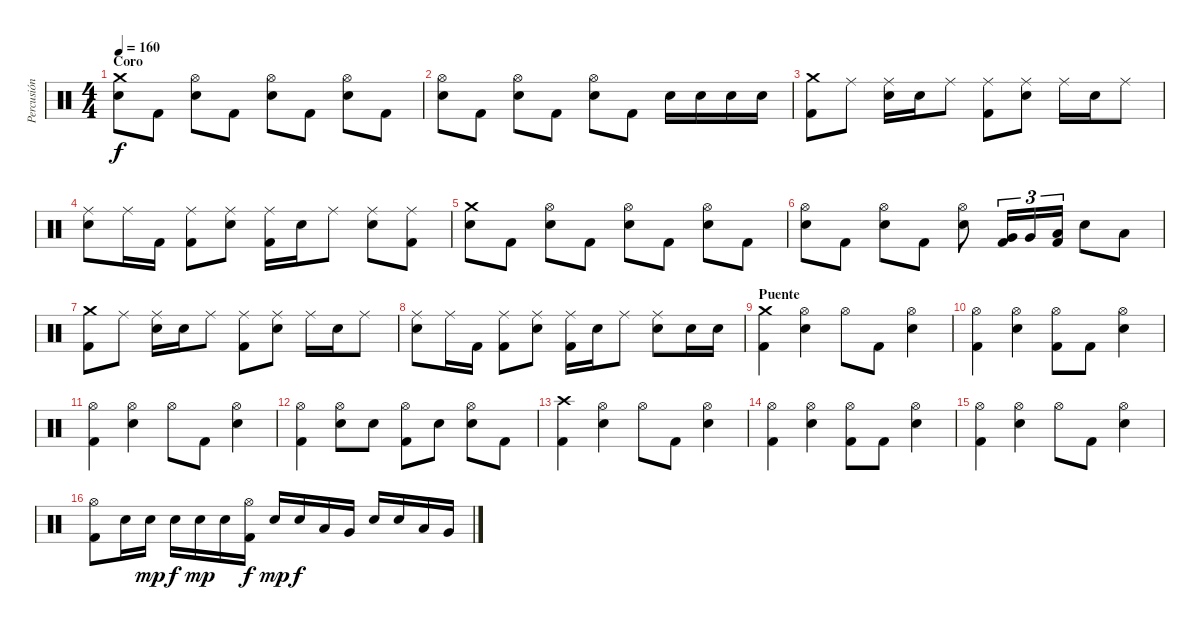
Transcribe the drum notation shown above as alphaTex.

\track ("Percusión" "Percusión") {instrument percussion}
\staff {score}
\articulation defaults
\ts (4 4)
\section ("" "Coro")
\tempo 160
\clef neutral
\ks c
("Crash medium (hit)" "Electric Snare (hit)").8{dy f} "Kick (hit) 2".8 ("Hi-Hat (open)" "Electric Snare (hit)").8 "Kick (hit) 2".8 ("Hi-Hat (open)" "Electric Snare (hit)").8 "Kick (hit) 2".8 ("Hi-Hat (open)" "Electric Snare (hit)").8 "Kick (hit) 2".8 |
("Hi-Hat (open)" "Electric Snare (hit)").8 "Kick (hit) 2".8 ("Hi-Hat (open)" "Electric Snare (hit)").8 "Kick (hit) 2".8 ("Hi-Hat (open)" "Electric Snare (hit)").8 "Kick (hit) 2".8 "Electric Snare (hit)".16 "Electric Snare (hit)".16 "Electric Snare (hit)".16 "Electric Snare (hit)".16 |
("Crash medium (hit)" "Kick (hit) 2").8 "Ride (middle)".8 ("Ride (middle)" "Electric Snare (hit)").16 "Electric Snare (hit)".16 "Ride (middle)".8 ("Ride (middle)" "Kick (hit) 2").8 ("Ride (middle)" "Electric Snare (hit)").8 "Ride (middle)".16 "Electric Snare (hit)".16 "Ride (middle)".8 |
("Ride (middle)" "Electric Snare (hit)").8 "Ride (middle)".16 "Kick (hit) 2".16 ("Ride (middle)" "Kick (hit) 2").8 ("Ride (middle)" "Electric Snare (hit)").8 ("Ride (middle)" "Kick (hit) 2").16 "Electric Snare (hit)".16 "Ride (middle)".8 ("Ride (middle)" "Electric Snare (hit)").8 ("Ride (middle)" "Kick (hit) 2").8 |
("Crash medium (hit)" "Electric Snare (hit)").8 "Kick (hit) 2".8 ("Hi-Hat (open)" "Electric Snare (hit)").8 "Kick (hit) 2".8 ("Hi-Hat (open)" "Electric Snare (hit)").8 "Kick (hit) 2".8 ("Hi-Hat (open)" "Electric Snare (hit)").8 "Kick (hit) 2".8 |
("Hi-Hat (open)" "Electric Snare (hit)").8 "Kick (hit) 2".8 ("Hi-Hat (open)" "Electric Snare (hit)").8 "Kick (hit) 2".8 ("Hi-Hat (open)" "Electric Snare (hit)").8 ("Very Low Tom (hit)" "Kick (hit) 2").16{tu (3 2)} "Very Low Tom (hit)".16{tu (3 2)} ("Low Floor Tom (hit)" "Kick (hit) 2").16{tu (3 2)} "Electric Snare (hit)".8 "Low Tom (hit)".8 |
("Crash medium (hit)" "Kick (hit) 2").8 "Ride (middle)".8 ("Ride (middle)" "Electric Snare (hit)").16 "Electric Snare (hit)".16 "Ride (middle)".8 ("Ride (middle)" "Kick (hit) 2").8 ("Ride (middle)" "Electric Snare (hit)").8 "Ride (middle)".16 "Electric Snare (hit)".16 "Ride (middle)".8 |
("Ride (middle)" "Electric Snare (hit)").8 "Ride (middle)".16 "Kick (hit) 2".16 ("Ride (middle)" "Kick (hit) 2").8 ("Ride (middle)" "Electric Snare (hit)").8 ("Ride (middle)" "Kick (hit) 2").16 "Electric Snare (hit)".16 "Ride (middle)".8 ("Ride (middle)" "Electric Snare (hit)").8 "Electric Snare (hit)".16 "Electric Snare (hit)".16 |
\section ("" "Puente")
("Crash medium (hit)" "Kick (hit) 2").4 ("Hi-Hat (open)" "Electric Snare (hit)").4 "Hi-Hat (open)".8 "Kick (hit) 2".8 ("Hi-Hat (open)" "Electric Snare (hit)").4 |
("Hi-Hat (open)" "Kick (hit) 2").4 ("Hi-Hat (open)" "Electric Snare (hit)").4 ("Hi-Hat (open)" "Kick (hit) 2").8 "Kick (hit) 2".8 ("Hi-Hat (open)" "Electric Snare (hit)").4 |
("Hi-Hat (open)" "Kick (hit) 2").4 ("Hi-Hat (open)" "Electric Snare (hit)").4 "Hi-Hat (open)".8 "Kick (hit) 2".8 ("Hi-Hat (open)" "Electric Snare (hit)").4 |
("Hi-Hat (open)" "Kick (hit) 2").4 ("Hi-Hat (open)" "Electric Snare (hit)").8 "Electric Snare (hit)".8 ("Hi-Hat (open)" "Kick (hit) 2").8 "Electric Snare (hit)".8 ("Hi-Hat (open)" "Electric Snare (hit)").8 "Kick (hit) 2".8 |
("Crash high (hit)" "Kick (hit) 2").4 ("Hi-Hat (open)" "Electric Snare (hit)").4 "Hi-Hat (open)".8 "Kick (hit) 2".8 ("Hi-Hat (open)" "Electric Snare (hit)").4 |
("Hi-Hat (open)" "Kick (hit) 2").4 ("Hi-Hat (open)" "Electric Snare (hit)").4 ("Hi-Hat (open)" "Kick (hit) 2").8 "Kick (hit) 2".8 ("Hi-Hat (open)" "Electric Snare (hit)").4 |
("Hi-Hat (open)" "Kick (hit) 2").4 ("Hi-Hat (open)" "Electric Snare (hit)").4 "Hi-Hat (open)".8 "Kick (hit) 2".8 ("Hi-Hat (open)" "Electric Snare (hit)").4 |
("Hi-Hat (open)" "Kick (hit) 2").8 "Electric Snare (hit)".16 "Electric Snare (hit)".16{dy mp} "Electric Snare (hit)".16{dy f} "Electric Snare (hit)".16{dy mp} "Electric Snare (hit)".16 ("Hi-Hat (open)" "Kick (hit) 2").16{dy f} "Electric Snare (hit)".16{dy mp} "Electric Snare (hit)".16{dy f} "Low Tom (hit)".16 "Very Low Tom (hit)".16 "Electric Snare (hit)".16 "Electric Snare (hit)".16 "Low Tom (hit)".16 "Very Low Tom (hit)".16
